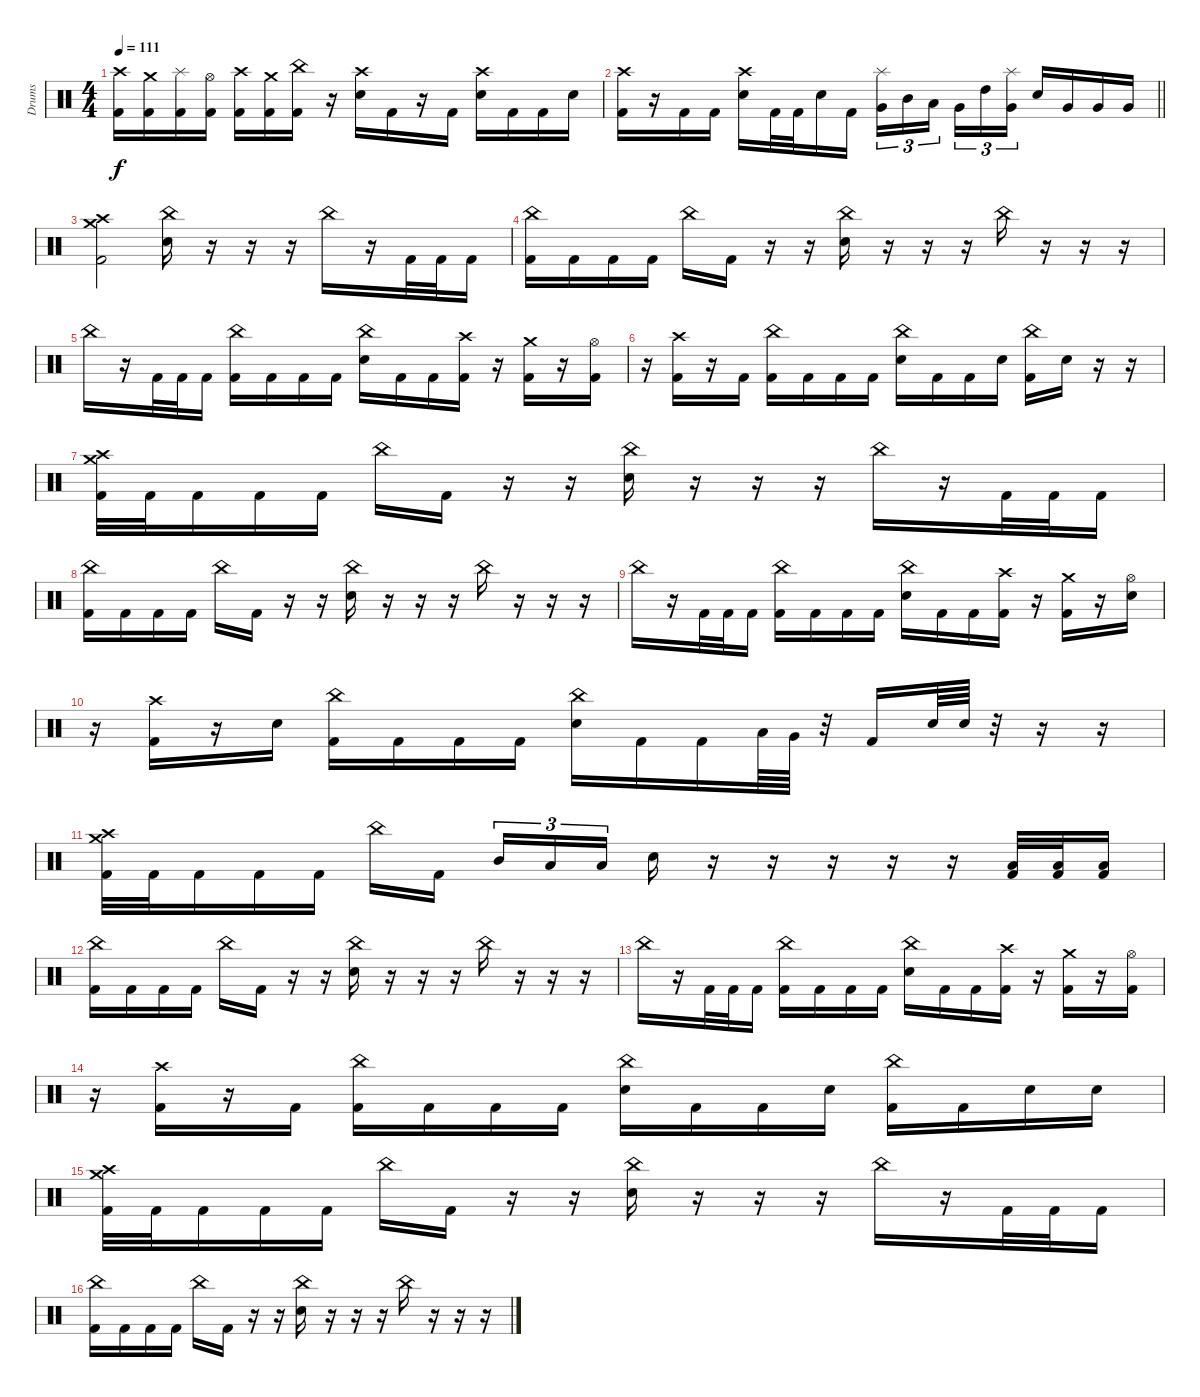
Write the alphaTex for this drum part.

\track ("Drums" "Drums") {instrument percussion}
\staff {score}
\articulation defaults
\ts (4 4)
\tempo 111
\clef neutral
\ks c
("Crash high (hit)" "Kick (hit) 2").16{dy f} ("Crash medium (hit)" "Kick (hit) 2").16 ("Splash (hit)" "Kick (hit) 2").16 ("Hi-Hat (open)" "Kick (hit) 2").16 ("Crash high (hit)" "Kick (hit) 2").16 ("Crash medium (hit)" "Kick (hit) 2").16 ("China (hit)" "Kick (hit) 2").16 r.16 ("Crash high (hit)" "Electric Snare (hit)").16 "Kick (hit) 2".16 r.16 "Kick (hit) 2".16 ("Crash high (hit)" "Electric Snare (hit)").16 "Kick (hit) 2".16 "Kick (hit) 2".16 "Electric Snare (hit)".16 |
\barLineRight lightlight
("Crash high (hit)" "Kick (hit) 2").16 r.16 "Kick (hit) 2".16 "Kick (hit) 2".16 ("Crash high (hit)" "Electric Snare (hit)").16 "Kick (hit) 2".32 "Kick (hit) 2".32 "Electric Snare (hit)".16 "Kick (hit) 2".16 ("Splash (hit)" "Very Low Tom (hit)").16{tu (3 2)} "Mid Tom (hit)".16{tu (3 2)} "Low Tom (hit)".16{tu (3 2)} "Very Low Tom (hit)".16{tu (3 2)} "High Tom (hit)".16{tu (3 2)} ("Splash (hit)" "Very Low Tom (hit)").16{tu (3 2)} "Electric Snare (hit)".16 "Very Low Tom (hit)".16 "Very Low Tom (hit)".16 "Very Low Tom (hit)".16 |
\section ("" "")
("Crash medium (hit)" "Crash high (hit)" "Kick (hit) 2").2 ("China (hit)" "Electric Snare (hit)").16 r.16 r.16 r.16 "China (hit)".16 r.16 "Kick (hit) 2".32 "Kick (hit) 2".32 "Kick (hit) 2".16 |
("China (hit)" "Kick (hit) 2").16 "Kick (hit) 2".16 "Kick (hit) 2".16 "Kick (hit) 2".16 "China (hit)".16 "Kick (hit) 2".16 r.16 r.16 ("China (hit)" "Electric Snare (hit)").16 r.16 r.16 r.16 "China (hit)".16 r.16 r.16 r.16 |
"China (hit)".16 r.16 "Kick (hit) 2".32 "Kick (hit) 2".32 "Kick (hit) 2".16 ("China (hit)" "Kick (hit) 2").16 "Kick (hit) 2".16 "Kick (hit) 2".16 "Kick (hit) 2".16 ("China (hit)" "Electric Snare (hit)").16 "Kick (hit) 2".16 "Kick (hit) 2".16 ("Crash high (hit)" "Kick (hit) 2").16 r.16 ("Crash medium (hit)" "Kick (hit) 2").16 r.16 ("Hi-Hat (open)" "Kick (hit) 2").16 |
r.16 ("Crash high (hit)" "Kick (hit) 2").16 r.16 "Kick (hit) 2".16 ("China (hit)" "Kick (hit) 2").16 "Kick (hit) 2".16 "Kick (hit) 2".16 "Kick (hit) 2".16 ("China (hit)" "Electric Snare (hit)").16 "Kick (hit) 2".16 "Kick (hit) 2".16 "Electric Snare (hit)".16 ("China (hit)" "Kick (hit) 2").16 "Electric Snare (hit)".16 r.16 r.16 |
("Crash medium (hit)" "Crash high (hit)" "Kick (hit) 2").32 "Kick (hit) 2".32 "Kick (hit) 2".16 "Kick (hit) 2".16 "Kick (hit) 2".16 "China (hit)".16 "Kick (hit) 2".16 r.16 r.16 ("China (hit)" "Electric Snare (hit)").16 r.16 r.16 r.16 "China (hit)".16 r.16 "Kick (hit) 2".32 "Kick (hit) 2".32 "Kick (hit) 2".16 |
("China (hit)" "Kick (hit) 2").16 "Kick (hit) 2".16 "Kick (hit) 2".16 "Kick (hit) 2".16 "China (hit)".16 "Kick (hit) 2".16 r.16 r.16 ("China (hit)" "Electric Snare (hit)").16 r.16 r.16 r.16 "China (hit)".16 r.16 r.16 r.16 |
"China (hit)".16 r.16 "Kick (hit) 2".32 "Kick (hit) 2".32 "Kick (hit) 2".16 ("China (hit)" "Kick (hit) 2").16 "Kick (hit) 2".16 "Kick (hit) 2".16 "Kick (hit) 2".16 ("China (hit)" "Electric Snare (hit)").16 "Kick (hit) 2".16 "Kick (hit) 2".16 ("Crash high (hit)" "Kick (hit) 2").16 r.16 ("Crash medium (hit)" "Kick (hit) 2").16 r.16 ("Hi-Hat (open)" "Electric Snare (hit)").16 |
r.16 ("Crash high (hit)" "Kick (hit) 2").16 r.16 "Electric Snare (hit)".16 ("China (hit)" "Kick (hit) 2").16 "Kick (hit) 2".16 "Kick (hit) 2".16 "Kick (hit) 2".16 ("China (hit)" "Electric Snare (hit)").16 "Kick (hit) 2".16 "Kick (hit) 2".16 "Low Tom (hit)".64 "Very Low Tom (hit)".64 r.32 "Kick (hit) 2".16 "Electric Snare (hit)".64 "Electric Snare (hit)".64 r.32 r.16 r.16 |
("Crash medium (hit)" "Crash high (hit)" "Kick (hit) 2").32 "Kick (hit) 2".32 "Kick (hit) 2".16 "Kick (hit) 2".16 "Kick (hit) 2".16 "China (hit)".16 "Kick (hit) 2".16 "Mid Tom (hit)".16{tu (3 2)} "Low Tom (hit)".16{tu (3 2)} "Low Floor Tom (hit)".16{tu (3 2)} "Electric Snare (hit)".16 r.16 r.16 r.16 r.16 r.16 ("Low Floor Tom (hit)" "Kick (hit) 2").32 ("Low Floor Tom (hit)" "Kick (hit) 2").32 ("Low Floor Tom (hit)" "Kick (hit) 2").16 |
("China (hit)" "Kick (hit) 2").16 "Kick (hit) 2".16 "Kick (hit) 2".16 "Kick (hit) 2".16 "China (hit)".16 "Kick (hit) 2".16 r.16 r.16 ("China (hit)" "Electric Snare (hit)").16 r.16 r.16 r.16 "China (hit)".16 r.16 r.16 r.16 |
"China (hit)".16 r.16 "Kick (hit) 2".32 "Kick (hit) 2".32 "Kick (hit) 2".16 ("China (hit)" "Kick (hit) 2").16 "Kick (hit) 2".16 "Kick (hit) 2".16 "Kick (hit) 2".16 ("China (hit)" "Electric Snare (hit)").16 "Kick (hit) 2".16 "Kick (hit) 2".16 ("Crash high (hit)" "Kick (hit) 2").16 r.16 ("Crash medium (hit)" "Kick (hit) 2").16 r.16 ("Hi-Hat (open)" "Kick (hit) 2").16 |
r.16 ("Crash high (hit)" "Kick (hit) 2").16 r.16 "Kick (hit) 2".16 ("China (hit)" "Kick (hit) 2").16 "Kick (hit) 2".16 "Kick (hit) 2".16 "Kick (hit) 2".16 ("China (hit)" "Electric Snare (hit)").16 "Kick (hit) 2".16 "Kick (hit) 2".16 "Electric Snare (hit)".16 ("China (hit)" "Kick (hit) 2").16 "Kick (hit) 2".16 "Electric Snare (hit)".16 "Electric Snare (hit)".16 |
("Crash medium (hit)" "Crash high (hit)" "Kick (hit) 2").32 "Kick (hit) 2".32 "Kick (hit) 2".16 "Kick (hit) 2".16 "Kick (hit) 2".16 "China (hit)".16 "Kick (hit) 2".16 r.16 r.16 ("China (hit)" "Electric Snare (hit)").16 r.16 r.16 r.16 "China (hit)".16 r.16 "Kick (hit) 2".32 "Kick (hit) 2".32 "Kick (hit) 2".16 |
("China (hit)" "Kick (hit) 2").16 "Kick (hit) 2".16 "Kick (hit) 2".16 "Kick (hit) 2".16 "China (hit)".16 "Kick (hit) 2".16 r.16 r.16 ("China (hit)" "Electric Snare (hit)").16 r.16 r.16 r.16 "China (hit)".16 r.16 r.16 r.16
